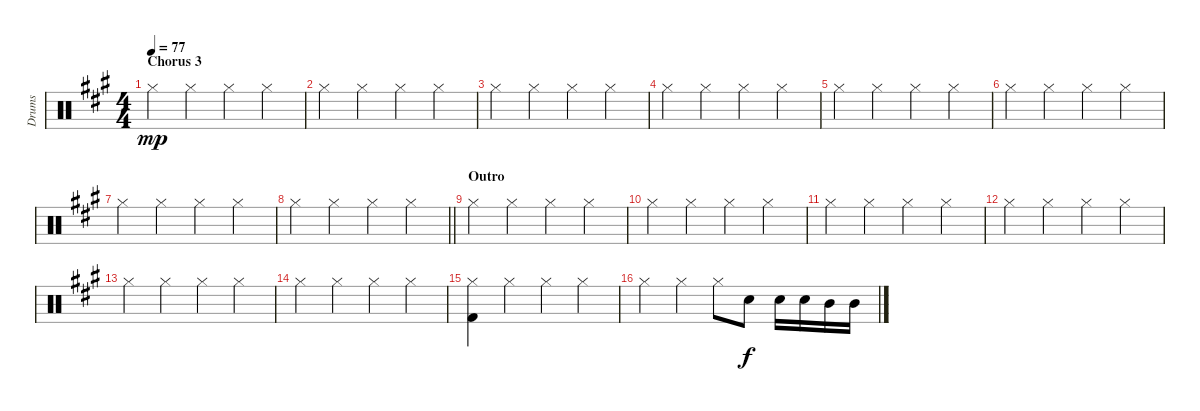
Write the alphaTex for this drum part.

\track ("Drums" "Drums") {instrument percussion}
\staff {score}
\articulation defaults
\ts (4 4)
\section ("" "Chorus 3")
\tempo 77
\clef neutral
\ks a "Hi-Hat (closed)".4{dy mp} "Hi-Hat (closed)".4 "Hi-Hat (closed)".4 "Hi-Hat (closed)".4
|
"Hi-Hat (closed)".4 "Hi-Hat (closed)".4 "Hi-Hat (closed)".4 "Hi-Hat (closed)".4 |
"Hi-Hat (closed)".4 "Hi-Hat (closed)".4 "Hi-Hat (closed)".4 "Hi-Hat (closed)".4 |
"Hi-Hat (closed)".4 "Hi-Hat (closed)".4 "Hi-Hat (closed)".4 "Hi-Hat (closed)".4 |
"Hi-Hat (closed)".4 "Hi-Hat (closed)".4 "Hi-Hat (closed)".4 "Hi-Hat (closed)".4 |
"Hi-Hat (closed)".4 "Hi-Hat (closed)".4 "Hi-Hat (closed)".4 "Hi-Hat (closed)".4 |
"Hi-Hat (closed)".4 "Hi-Hat (closed)".4 "Hi-Hat (closed)".4 "Hi-Hat (closed)".4 |
\barLineRight lightlight "Hi-Hat (closed)".4 "Hi-Hat (closed)".4 "Hi-Hat (closed)".4 "Hi-Hat (closed)".4
|
\section ("" "Outro")
"Hi-Hat (closed)".4 "Hi-Hat (closed)".4 "Hi-Hat (closed)".4 "Hi-Hat (closed)".4 |
"Hi-Hat (closed)".4 "Hi-Hat (closed)".4 "Hi-Hat (closed)".4 "Hi-Hat (closed)".4 |
"Hi-Hat (closed)".4 "Hi-Hat (closed)".4 "Hi-Hat (closed)".4 "Hi-Hat (closed)".4 |
"Hi-Hat (closed)".4 "Hi-Hat (closed)".4 "Hi-Hat (closed)".4 "Hi-Hat (closed)".4 |
"Hi-Hat (closed)".4 "Hi-Hat (closed)".4 "Hi-Hat (closed)".4 "Hi-Hat (closed)".4 |
"Hi-Hat (closed)".4 "Hi-Hat (closed)".4 "Hi-Hat (closed)".4 "Hi-Hat (closed)".4 |
("Hi-Hat (closed)" "Kick (hit) 2").4 "Hi-Hat (closed)".4 "Hi-Hat (closed)".4 "Hi-Hat (closed)".4 |
"Hi-Hat (closed)".4 "Hi-Hat (closed)".4 "Hi-Hat (closed)".8 "Electric Snare (hit)".8{dy f} "Electric Snare (hit)".16 "Electric Snare (hit)".16 "Mid Tom (hit)".16 "Mid Tom (hit)".16
